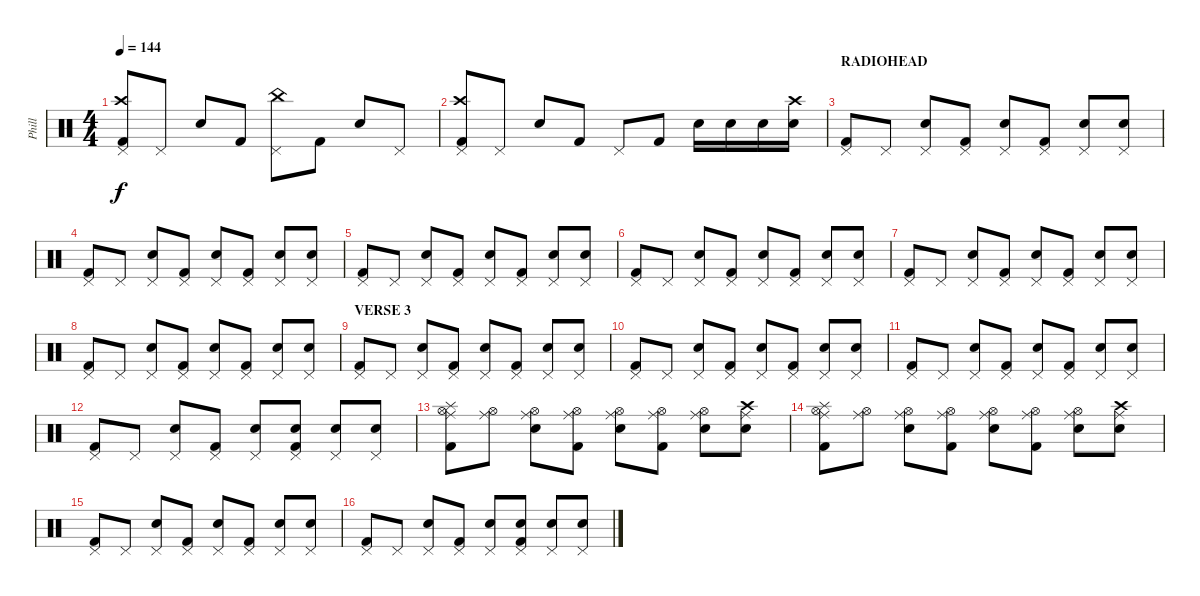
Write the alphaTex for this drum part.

\track ("Phill" "Phill") {instrument percussion}
\staff {score}
\articulation defaults
\ts (4 4)
\tempo 144
\clef neutral
\ks c
("Pedal Hi-Hat (hit)" "Crash high (hit)" "Kick (hit) 2").8{dy f} "Pedal Hi-Hat (hit)".8 "Snare (hit) 2".8 "Kick (hit) 2".8 ("Pedal Hi-Hat (hit)" "China (hit)").8 "Kick (hit) 2".8 "Snare (hit) 2".8 "Pedal Hi-Hat (hit)".8 |
("Pedal Hi-Hat (hit)" "Crash high (hit)" "Kick (hit) 2").8 "Pedal Hi-Hat (hit)".8 "Snare (hit) 2".8 "Kick (hit) 2".8 "Pedal Hi-Hat (hit)".8 "Kick (hit) 2".8 "Snare (hit) 2".16 "Snare (hit) 2".16 "Snare (hit) 2".16 ("Crash high (hit)" "Snare (hit) 2").16 |
\section ("" "RADIOHEAD")
("Pedal Hi-Hat (hit)" "Kick (hit) 2").8 "Pedal Hi-Hat (hit)".8 ("Pedal Hi-Hat (hit)" "Snare (hit) 2").8 ("Pedal Hi-Hat (hit)" "Kick (hit) 2").8 ("Pedal Hi-Hat (hit)" "Snare (hit) 2").8 ("Pedal Hi-Hat (hit)" "Kick (hit) 2").8 ("Pedal Hi-Hat (hit)" "Snare (hit) 2").8 ("Pedal Hi-Hat (hit)" "Snare (hit) 2").8 |
("Pedal Hi-Hat (hit)" "Kick (hit) 2").8 "Pedal Hi-Hat (hit)".8 ("Pedal Hi-Hat (hit)" "Snare (hit) 2").8 ("Pedal Hi-Hat (hit)" "Kick (hit) 2").8 ("Pedal Hi-Hat (hit)" "Snare (hit) 2").8 ("Pedal Hi-Hat (hit)" "Kick (hit) 2").8 ("Pedal Hi-Hat (hit)" "Snare (hit) 2").8 ("Pedal Hi-Hat (hit)" "Snare (hit) 2").8 |
("Pedal Hi-Hat (hit)" "Kick (hit) 2").8 "Pedal Hi-Hat (hit)".8 ("Pedal Hi-Hat (hit)" "Snare (hit) 2").8 ("Pedal Hi-Hat (hit)" "Kick (hit) 2").8 ("Pedal Hi-Hat (hit)" "Snare (hit) 2").8 ("Pedal Hi-Hat (hit)" "Kick (hit) 2").8 ("Pedal Hi-Hat (hit)" "Snare (hit) 2").8 ("Pedal Hi-Hat (hit)" "Snare (hit) 2").8 |
("Pedal Hi-Hat (hit)" "Kick (hit) 2").8 "Pedal Hi-Hat (hit)".8 ("Pedal Hi-Hat (hit)" "Snare (hit) 2").8 ("Pedal Hi-Hat (hit)" "Kick (hit) 2").8 ("Pedal Hi-Hat (hit)" "Snare (hit) 2").8 ("Pedal Hi-Hat (hit)" "Kick (hit) 2").8 ("Pedal Hi-Hat (hit)" "Snare (hit) 2").8 ("Pedal Hi-Hat (hit)" "Snare (hit) 2").8 |
("Pedal Hi-Hat (hit)" "Kick (hit) 2").8 "Pedal Hi-Hat (hit)".8 ("Pedal Hi-Hat (hit)" "Snare (hit) 2").8 ("Pedal Hi-Hat (hit)" "Kick (hit) 2").8 ("Pedal Hi-Hat (hit)" "Snare (hit) 2").8 ("Pedal Hi-Hat (hit)" "Kick (hit) 2").8 ("Pedal Hi-Hat (hit)" "Snare (hit) 2").8 ("Pedal Hi-Hat (hit)" "Snare (hit) 2").8 |
("Pedal Hi-Hat (hit)" "Kick (hit) 2").8 "Pedal Hi-Hat (hit)".8 ("Pedal Hi-Hat (hit)" "Snare (hit) 2").8 ("Pedal Hi-Hat (hit)" "Kick (hit) 2").8 ("Pedal Hi-Hat (hit)" "Snare (hit) 2").8 ("Pedal Hi-Hat (hit)" "Kick (hit) 2").8 ("Pedal Hi-Hat (hit)" "Snare (hit) 2").8 ("Pedal Hi-Hat (hit)" "Snare (hit) 2").8 |
\section ("" "VERSE 3")
("Pedal Hi-Hat (hit)" "Kick (hit) 2").8 "Pedal Hi-Hat (hit)".8 ("Pedal Hi-Hat (hit)" "Snare (hit) 2").8 ("Pedal Hi-Hat (hit)" "Kick (hit) 2").8 ("Pedal Hi-Hat (hit)" "Snare (hit) 2").8 ("Pedal Hi-Hat (hit)" "Kick (hit) 2").8 ("Pedal Hi-Hat (hit)" "Snare (hit) 2").8 ("Pedal Hi-Hat (hit)" "Snare (hit) 2").8 |
("Pedal Hi-Hat (hit)" "Kick (hit) 2").8 "Pedal Hi-Hat (hit)".8 ("Pedal Hi-Hat (hit)" "Snare (hit) 2").8 ("Pedal Hi-Hat (hit)" "Kick (hit) 2").8 ("Pedal Hi-Hat (hit)" "Snare (hit) 2").8 ("Pedal Hi-Hat (hit)" "Kick (hit) 2").8 ("Pedal Hi-Hat (hit)" "Snare (hit) 2").8 ("Pedal Hi-Hat (hit)" "Snare (hit) 2").8 |
("Pedal Hi-Hat (hit)" "Kick (hit) 2").8 "Pedal Hi-Hat (hit)".8 ("Pedal Hi-Hat (hit)" "Snare (hit) 2").8 ("Pedal Hi-Hat (hit)" "Kick (hit) 2").8 ("Pedal Hi-Hat (hit)" "Snare (hit) 2").8 ("Pedal Hi-Hat (hit)" "Kick (hit) 2").8 ("Pedal Hi-Hat (hit)" "Snare (hit) 2").8 ("Pedal Hi-Hat (hit)" "Snare (hit) 2").8 |
("Pedal Hi-Hat (hit)" "Kick (hit) 2").8 "Pedal Hi-Hat (hit)".8 ("Pedal Hi-Hat (hit)" "Snare (hit) 2").8 ("Pedal Hi-Hat (hit)" "Kick (hit) 2").8 ("Pedal Hi-Hat (hit)" "Snare (hit) 2").8 ("Pedal Hi-Hat (hit)" "Snare (hit) 2" "Kick (hit) 2").8 ("Pedal Hi-Hat (hit)" "Snare (hit) 2").8 ("Pedal Hi-Hat (hit)" "Snare (hit) 2").8 |
("Hi-Hat (open)" "Ride (middle)" "Splash (hit)" "Kick (hit) 2").8 ("Hi-Hat (open)" "Ride (middle)").8 ("Hi-Hat (open)" "Ride (middle)" "Snare (hit) 2").8 ("Hi-Hat (open)" "Ride (middle)" "Kick (hit) 2").8 ("Hi-Hat (open)" "Ride (middle)" "Snare (hit) 2").8 ("Hi-Hat (open)" "Ride (middle)" "Kick (hit) 2").8 ("Hi-Hat (open)" "Ride (middle)" "Snare (hit) 2").8 ("Crash high (hit)" "Ride (middle)" "Snare (hit) 2").8 |
("Hi-Hat (open)" "Ride (middle)" "Splash (hit)" "Kick (hit) 2").8 ("Hi-Hat (open)" "Ride (middle)").8 ("Hi-Hat (open)" "Ride (middle)" "Snare (hit) 2").8 ("Hi-Hat (open)" "Ride (middle)" "Kick (hit) 2").8 ("Hi-Hat (open)" "Ride (middle)" "Snare (hit) 2").8 ("Hi-Hat (open)" "Ride (middle)" "Kick (hit) 2").8 ("Hi-Hat (open)" "Ride (middle)" "Snare (hit) 2").8 ("Crash high (hit)" "Ride (middle)" "Snare (hit) 2").8 |
("Pedal Hi-Hat (hit)" "Kick (hit) 2").8 "Pedal Hi-Hat (hit)".8 ("Pedal Hi-Hat (hit)" "Snare (hit) 2").8 ("Pedal Hi-Hat (hit)" "Kick (hit) 2").8 ("Pedal Hi-Hat (hit)" "Snare (hit) 2").8 ("Pedal Hi-Hat (hit)" "Kick (hit) 2").8 ("Pedal Hi-Hat (hit)" "Snare (hit) 2").8 ("Pedal Hi-Hat (hit)" "Snare (hit) 2").8 |
("Pedal Hi-Hat (hit)" "Kick (hit) 2").8 "Pedal Hi-Hat (hit)".8 ("Pedal Hi-Hat (hit)" "Snare (hit) 2").8 ("Pedal Hi-Hat (hit)" "Kick (hit) 2").8 ("Pedal Hi-Hat (hit)" "Snare (hit) 2").8 ("Pedal Hi-Hat (hit)" "Snare (hit) 2" "Kick (hit) 2").8 ("Pedal Hi-Hat (hit)" "Snare (hit) 2").8 ("Pedal Hi-Hat (hit)" "Snare (hit) 2").8
